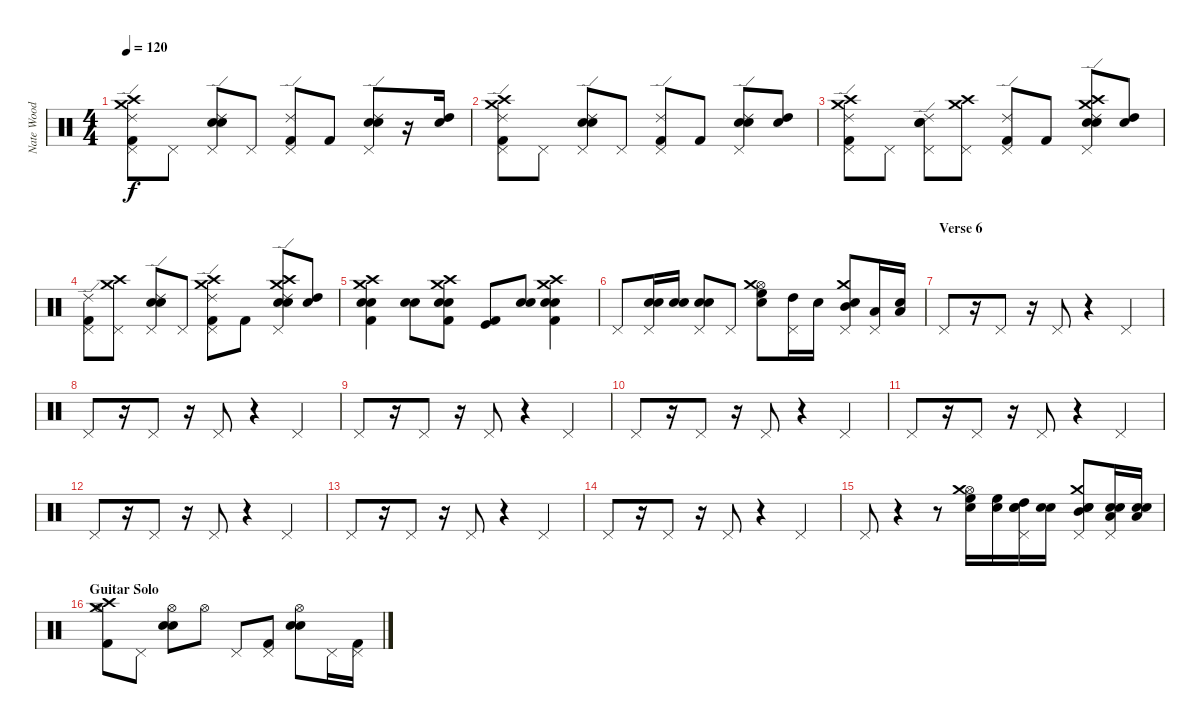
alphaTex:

\track ("Nate Wood  (Drums)" "Nate Wood ") {instrument percussion}
\staff {score}
\articulation defaults
\ts (4 4)
\tempo 120
\clef neutral
\ks c
("Pedal Hi-Hat (hit)" "Crash medium (hit)" "Kick (hit) 2" "Ride (edge) 2" "Crash high (hit)").8{dy f} "Pedal Hi-Hat (hit)".8 ("Pedal Hi-Hat (hit)" "Snare (hit) 2" "Electric Snare (hit)" "Ride (edge) 2").8 "Pedal Hi-Hat (hit)".8 ("Pedal Hi-Hat (hit)" "Kick (hit) 2" "Ride (edge) 2").8 "Kick (hit) 2".8 ("Pedal Hi-Hat (hit)" "Snare (hit) 2" "Electric Snare (hit)" "Ride (edge) 2").8 r.16 ("Snare (hit) 2" "High Tom (hit)").16 |
("Pedal Hi-Hat (hit)" "Crash medium (hit)" "Kick (hit) 2" "Ride (edge) 2" "Crash high (hit)").8 "Pedal Hi-Hat (hit)".8 ("Pedal Hi-Hat (hit)" "Snare (hit) 2" "Electric Snare (hit)" "Ride (edge) 2").8 "Pedal Hi-Hat (hit)".8 ("Pedal Hi-Hat (hit)" "Kick (hit) 2" "Ride (edge) 2").8 "Kick (hit) 2".8 ("Pedal Hi-Hat (hit)" "Snare (hit) 2" "Electric Snare (hit)" "Ride (edge) 2").8 ("Snare (hit) 2" "High Tom (hit)").8 |
("Pedal Hi-Hat (hit)" "Crash medium (hit)" "Kick (hit) 2" "Ride (edge) 2" "Crash high (hit)").8 "Pedal Hi-Hat (hit)".8 ("Pedal Hi-Hat (hit)" "Snare (hit) 2" "Electric Snare (hit)" "Ride (edge) 2").8 ("Pedal Hi-Hat (hit)" "Crash medium (hit)" "Crash high (hit)").8 ("Pedal Hi-Hat (hit)" "Kick (hit) 2" "Ride (edge) 2").8 "Kick (hit) 2".8 ("Pedal Hi-Hat (hit)" "Snare (hit) 2" "Electric Snare (hit)" "Crash medium (hit)" "Ride (edge) 2" "Crash high (hit)").8 ("Snare (hit) 2" "High Tom (hit)").8 |
("Pedal Hi-Hat (hit)" "Kick (hit) 2" "Ride (edge) 2").8 ("Pedal Hi-Hat (hit)" "Crash medium (hit)" "Crash high (hit)").8 ("Pedal Hi-Hat (hit)" "Snare (hit) 2" "Electric Snare (hit)" "Ride (edge) 2").8 "Pedal Hi-Hat (hit)".8 ("Pedal Hi-Hat (hit)" "Crash medium (hit)" "Kick (hit) 2" "Ride (edge) 2" "Crash high (hit)").8 "Kick (hit) 2".8 ("Pedal Hi-Hat (hit)" "Snare (hit) 2" "Electric Snare (hit)" "Crash medium (hit)" "Ride (edge) 2" "Crash high (hit)").8 ("Snare (hit) 2" "High Tom (hit)").8 |
("Kick (hit) 2" "Electric Snare (hit)" "Crash medium (hit)" "Crash high (hit)" "Snare (hit) 2").4 ("Snare (hit) 2" "Electric Snare (hit)").8 ("Kick (hit) 2" "Electric Snare (hit)" "Crash medium (hit)" "Crash high (hit)" "Snare (hit) 2").8 ("Kick (hit) 2" "Kick (hit)").8 ("Snare (hit) 2" "Electric Snare (hit)").8 ("Kick (hit) 2" "Electric Snare (hit)" "Crash medium (hit)" "Crash high (hit)" "Snare (hit) 2").4 |
"Pedal Hi-Hat (hit)".8 ("Pedal Hi-Hat (hit)" "Snare (hit) 2" "Electric Snare (hit)").16 ("Snare (hit) 2" "Electric Snare (hit)").16 ("Pedal Hi-Hat (hit)" "Snare (hit) 2" "Electric Snare (hit)").8 "Pedal Hi-Hat (hit)".8 ("Hi-Hat (open)" "Snare (hit) 2" "High Floor Tom (hit)" "Crash medium (hit)").8 ("Pedal Hi-Hat (hit)" "High Tom (hit)").16 "Snare (hit) 2".16 ("Pedal Hi-Hat (hit)" "Snare (hit) 2" "Mid Tom (hit)" "Crash medium (hit)").8 ("Pedal Hi-Hat (hit)" "Low Tom (hit)").16 ("Snare (hit) 2" "Low Tom (hit)").16 |
\section ("" "Verse 6")
"Pedal Hi-Hat (hit)".8 r.16 "Pedal Hi-Hat (hit)".8 r.16 "Pedal Hi-Hat (hit)".8 r.4 "Pedal Hi-Hat (hit)".4 |
"Pedal Hi-Hat (hit)".8 r.16 "Pedal Hi-Hat (hit)".8 r.16 "Pedal Hi-Hat (hit)".8 r.4 "Pedal Hi-Hat (hit)".4 |
"Pedal Hi-Hat (hit)".8 r.16 "Pedal Hi-Hat (hit)".8 r.16 "Pedal Hi-Hat (hit)".8 r.4 "Pedal Hi-Hat (hit)".4 |
"Pedal Hi-Hat (hit)".8 r.16 "Pedal Hi-Hat (hit)".8 r.16 "Pedal Hi-Hat (hit)".8 r.4 "Pedal Hi-Hat (hit)".4 |
"Pedal Hi-Hat (hit)".8 r.16 "Pedal Hi-Hat (hit)".8 r.16 "Pedal Hi-Hat (hit)".8 r.4 "Pedal Hi-Hat (hit)".4 |
"Pedal Hi-Hat (hit)".8 r.16 "Pedal Hi-Hat (hit)".8 r.16 "Pedal Hi-Hat (hit)".8 r.4 "Pedal Hi-Hat (hit)".4 |
"Pedal Hi-Hat (hit)".8 r.16 "Pedal Hi-Hat (hit)".8 r.16 "Pedal Hi-Hat (hit)".8 r.4 "Pedal Hi-Hat (hit)".4 |
"Pedal Hi-Hat (hit)".8 r.16 "Pedal Hi-Hat (hit)".8 r.16 "Pedal Hi-Hat (hit)".8 r.4 "Pedal Hi-Hat (hit)".4 |
"Pedal Hi-Hat (hit)".8 r.4 r.8 ("Hi-Hat (open)" "Snare (hit) 2" "High Floor Tom (hit)" "Crash medium (hit)").16 ("Snare (hit) 2" "High Floor Tom (hit)").16 ("Pedal Hi-Hat (hit)" "Electric Snare (hit)" "High Tom (hit)" "Snare (hit) 2").16 ("Snare (hit) 2" "Electric Snare (hit)").16 ("Electric Snare (hit)" "Pedal Hi-Hat (hit)" "Snare (hit) 2" "Mid Tom (hit)" "Crash medium (hit)").8 ("Pedal Hi-Hat (hit)" "Electric Snare (hit)" "Low Tom (hit)" "Snare (hit) 2").16 ("Electric Snare (hit)" "Snare (hit) 2" "Low Tom (hit)").16 |
\section ("" "Guitar Solo")
("Kick (hit) 2" "Hi-Hat (open)" "Crash medium (hit)" "Crash high (hit)").8 "Pedal Hi-Hat (hit)".8 ("Snare (hit) 2" "Electric Snare (hit)" "Hi-Hat (open)").8 "Hi-Hat (open)".8 "Pedal Hi-Hat (hit)".8 ("Kick (hit) 2" "Pedal Hi-Hat (hit)").8 ("Snare (hit) 2" "Electric Snare (hit)" "Hi-Hat (open)").8 "Pedal Hi-Hat (hit)".16 ("Kick (hit) 2" "Pedal Hi-Hat (hit)").16
